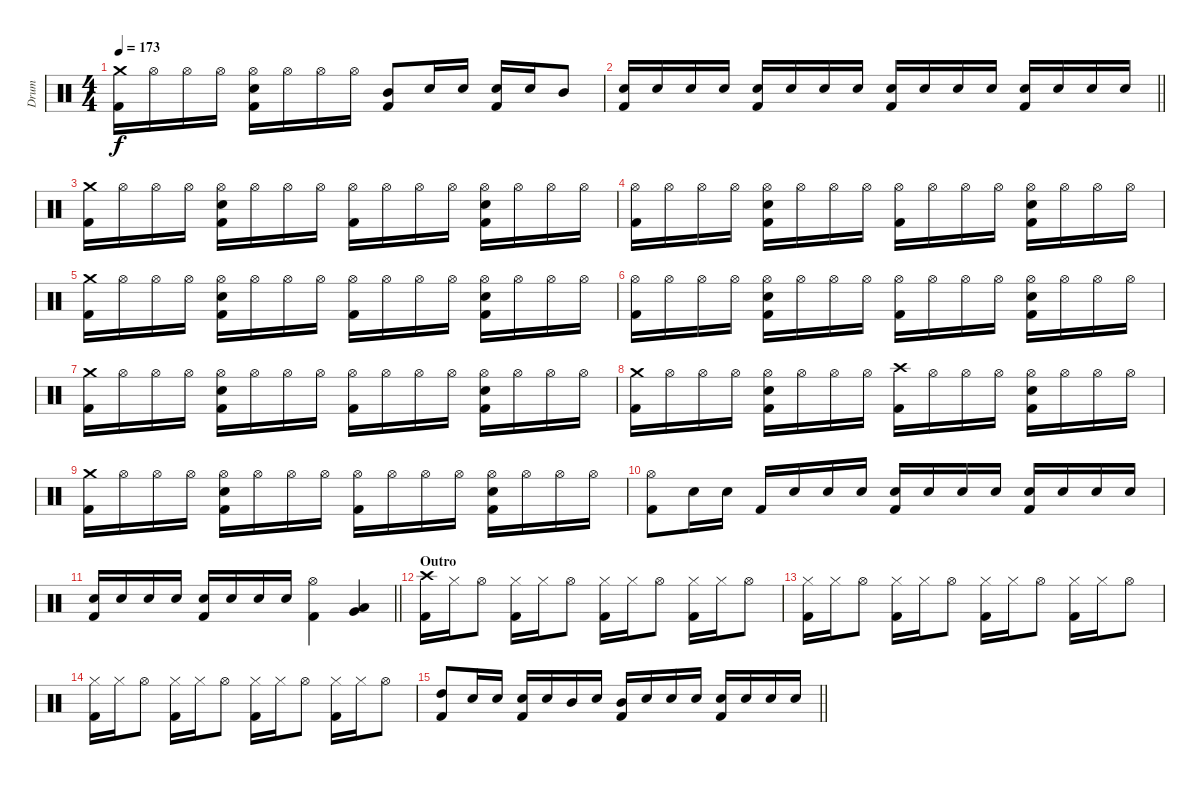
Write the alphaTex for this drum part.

\track ("Drum" "Drum") {instrument percussion}
\staff {score}
\articulation defaults
\ts (4 4)
\tempo 173
\clef neutral
\ks c
("Crash medium (hit)" "Kick (hit) 2").16{dy f} "Hi-Hat (open)".16 "Hi-Hat (open)".16 "Hi-Hat (open)".16 ("Hi-Hat (open)" "Kick (hit) 2" "Snare (hit) 2").16 "Hi-Hat (open)".16 "Hi-Hat (open)".16 "Hi-Hat (open)".16 ("Mid Tom (hit)" "Kick (hit) 2").8 "Snare (hit) 2".16 "Snare (hit) 2".16 ("Snare (hit) 2" "Kick (hit) 2").16 "Snare (hit) 2".16 "Mid Tom (hit)".8 |
\barLineRight lightlight
("Snare (hit) 2" "Kick (hit) 2").16 "Snare (hit) 2".16 "Snare (hit) 2".16 "Snare (hit) 2".16 ("Snare (hit) 2" "Kick (hit) 2").16 "Snare (hit) 2".16 "Snare (hit) 2".16 "Snare (hit) 2".16 ("Snare (hit) 2" "Kick (hit) 2").16 "Snare (hit) 2".16 "Snare (hit) 2".16 "Snare (hit) 2".16 ("Snare (hit) 2" "Kick (hit) 2").16 "Snare (hit) 2".16 "Snare (hit) 2".16 "Snare (hit) 2".16 |
("Crash medium (hit)" "Kick (hit) 2").16 "Hi-Hat (open)".16 "Hi-Hat (open)".16 "Hi-Hat (open)".16 ("Hi-Hat (open)" "Kick (hit) 2" "Snare (hit) 2").16 "Hi-Hat (open)".16 "Hi-Hat (open)".16 "Hi-Hat (open)".16 ("Hi-Hat (open)" "Kick (hit) 2").16 "Hi-Hat (open)".16 "Hi-Hat (open)".16 "Hi-Hat (open)".16 ("Hi-Hat (open)" "Kick (hit) 2" "Snare (hit) 2").16 "Hi-Hat (open)".16 "Hi-Hat (open)".16 "Hi-Hat (open)".16 |
("Hi-Hat (open)" "Kick (hit) 2").16 "Hi-Hat (open)".16 "Hi-Hat (open)".16 "Hi-Hat (open)".16 ("Hi-Hat (open)" "Kick (hit) 2" "Snare (hit) 2").16 "Hi-Hat (open)".16 "Hi-Hat (open)".16 "Hi-Hat (open)".16 ("Hi-Hat (open)" "Kick (hit) 2").16 "Hi-Hat (open)".16 "Hi-Hat (open)".16 "Hi-Hat (open)".16 ("Hi-Hat (open)" "Kick (hit) 2" "Snare (hit) 2").16 "Hi-Hat (open)".16 "Hi-Hat (open)".16 "Hi-Hat (open)".16 |
("Crash medium (hit)" "Kick (hit) 2").16 "Hi-Hat (open)".16 "Hi-Hat (open)".16 "Hi-Hat (open)".16 ("Hi-Hat (open)" "Kick (hit) 2" "Snare (hit) 2").16 "Hi-Hat (open)".16 "Hi-Hat (open)".16 "Hi-Hat (open)".16 ("Hi-Hat (open)" "Kick (hit) 2").16 "Hi-Hat (open)".16 "Hi-Hat (open)".16 "Hi-Hat (open)".16 ("Hi-Hat (open)" "Kick (hit) 2" "Snare (hit) 2").16 "Hi-Hat (open)".16 "Hi-Hat (open)".16 "Hi-Hat (open)".16 |
("Hi-Hat (open)" "Kick (hit) 2").16 "Hi-Hat (open)".16 "Hi-Hat (open)".16 "Hi-Hat (open)".16 ("Hi-Hat (open)" "Kick (hit) 2" "Snare (hit) 2").16 "Hi-Hat (open)".16 "Hi-Hat (open)".16 "Hi-Hat (open)".16 ("Hi-Hat (open)" "Kick (hit) 2").16 "Hi-Hat (open)".16 "Hi-Hat (open)".16 "Hi-Hat (open)".16 ("Hi-Hat (open)" "Kick (hit) 2" "Snare (hit) 2").16 "Hi-Hat (open)".16 "Hi-Hat (open)".16 "Hi-Hat (open)".16 |
("Crash medium (hit)" "Kick (hit) 2").16 "Hi-Hat (open)".16 "Hi-Hat (open)".16 "Hi-Hat (open)".16 ("Hi-Hat (open)" "Kick (hit) 2" "Snare (hit) 2").16 "Hi-Hat (open)".16 "Hi-Hat (open)".16 "Hi-Hat (open)".16 ("Hi-Hat (open)" "Kick (hit) 2").16 "Hi-Hat (open)".16 "Hi-Hat (open)".16 "Hi-Hat (open)".16 ("Hi-Hat (open)" "Kick (hit) 2" "Snare (hit) 2").16 "Hi-Hat (open)".16 "Hi-Hat (open)".16 "Hi-Hat (open)".16 |
("Crash medium (hit)" "Kick (hit) 2").16 "Hi-Hat (open)".16 "Hi-Hat (open)".16 "Hi-Hat (open)".16 ("Hi-Hat (open)" "Kick (hit) 2" "Snare (hit) 2").16 "Hi-Hat (open)".16 "Hi-Hat (open)".16 "Hi-Hat (open)".16 ("Crash high (hit)" "Kick (hit) 2").16 "Hi-Hat (open)".16 "Hi-Hat (open)".16 "Hi-Hat (open)".16 ("Hi-Hat (open)" "Kick (hit) 2" "Snare (hit) 2").16 "Hi-Hat (open)".16 "Hi-Hat (open)".16 "Hi-Hat (open)".16 |
("Crash medium (hit)" "Kick (hit) 2").16 "Hi-Hat (open)".16 "Hi-Hat (open)".16 "Hi-Hat (open)".16 ("Hi-Hat (open)" "Kick (hit) 2" "Snare (hit) 2").16 "Hi-Hat (open)".16 "Hi-Hat (open)".16 "Hi-Hat (open)".16 ("Hi-Hat (open)" "Kick (hit) 2").16 "Hi-Hat (open)".16 "Hi-Hat (open)".16 "Hi-Hat (open)".16 ("Hi-Hat (open)" "Kick (hit) 2" "Snare (hit) 2").16 "Hi-Hat (open)".16 "Hi-Hat (open)".16 "Hi-Hat (open)".16 |
("Kick (hit) 2" "Hi-Hat (open)").8 "Snare (hit) 2".16 "Snare (hit) 2".16 "Kick (hit) 2".16 "Snare (hit) 2".16 "Snare (hit) 2".16 "Snare (hit) 2".16 ("Snare (hit) 2" "Kick (hit) 2").16 "Snare (hit) 2".16 "Snare (hit) 2".16 "Snare (hit) 2".16 ("Snare (hit) 2" "Kick (hit) 2").16 "Snare (hit) 2".16 "Snare (hit) 2".16 "Snare (hit) 2".16 |
\barLineRight lightlight
("Snare (hit) 2" "Kick (hit) 2").16 "Snare (hit) 2".16 "Snare (hit) 2".16 "Snare (hit) 2".16 ("Snare (hit) 2" "Kick (hit) 2").16 "Snare (hit) 2".16 "Snare (hit) 2".16 "Snare (hit) 2".16 ("Hi-Hat (open)" "Kick (hit) 2").4 ("Very Low Tom (hit)" "Low Tom (hit)").4 |
\section ("" "Outro")
("Crash high (hit)" "Kick (hit) 2").16 "Hi-Hat (closed)".16 "Hi-Hat (open)".8 ("Hi-Hat (closed)" "Kick (hit) 2").16 "Hi-Hat (closed)".16 "Hi-Hat (open)".8 ("Hi-Hat (closed)" "Kick (hit) 2").16 "Hi-Hat (closed)".16 "Hi-Hat (open)".8 ("Hi-Hat (closed)" "Kick (hit) 2").16 "Hi-Hat (closed)".16 "Hi-Hat (open)".8 |
("Hi-Hat (closed)" "Kick (hit) 2").16 "Hi-Hat (closed)".16 "Hi-Hat (open)".8 ("Hi-Hat (closed)" "Kick (hit) 2").16 "Hi-Hat (closed)".16 "Hi-Hat (open)".8 ("Hi-Hat (closed)" "Kick (hit) 2").16 "Hi-Hat (closed)".16 "Hi-Hat (open)".8 ("Hi-Hat (closed)" "Kick (hit) 2").16 "Hi-Hat (closed)".16 "Hi-Hat (open)".8 |
("Hi-Hat (closed)" "Kick (hit) 2").16 "Hi-Hat (closed)".16 "Hi-Hat (open)".8 ("Hi-Hat (closed)" "Kick (hit) 2").16 "Hi-Hat (closed)".16 "Hi-Hat (open)".8 ("Hi-Hat (closed)" "Kick (hit) 2").16 "Hi-Hat (closed)".16 "Hi-Hat (open)".8 ("Hi-Hat (closed)" "Kick (hit) 2").16 "Hi-Hat (closed)".16 "Hi-Hat (open)".8 |
\barLineRight lightlight
("Kick (hit) 2" "High Tom (hit)").8 "Snare (hit) 2".16 "Snare (hit) 2".16 ("Kick (hit) 2" "Snare (hit) 2").16 "Snare (hit) 2".16 "Mid Tom (hit)".16 "Snare (hit) 2".16 ("Kick (hit) 2" "Mid Tom (hit)").16 "Snare (hit) 2".16 "Snare (hit) 2".16 "Snare (hit) 2".16 ("Kick (hit) 2" "Snare (hit) 2").16 "Snare (hit) 2".16 "Snare (hit) 2".16 "Snare (hit) 2".16
